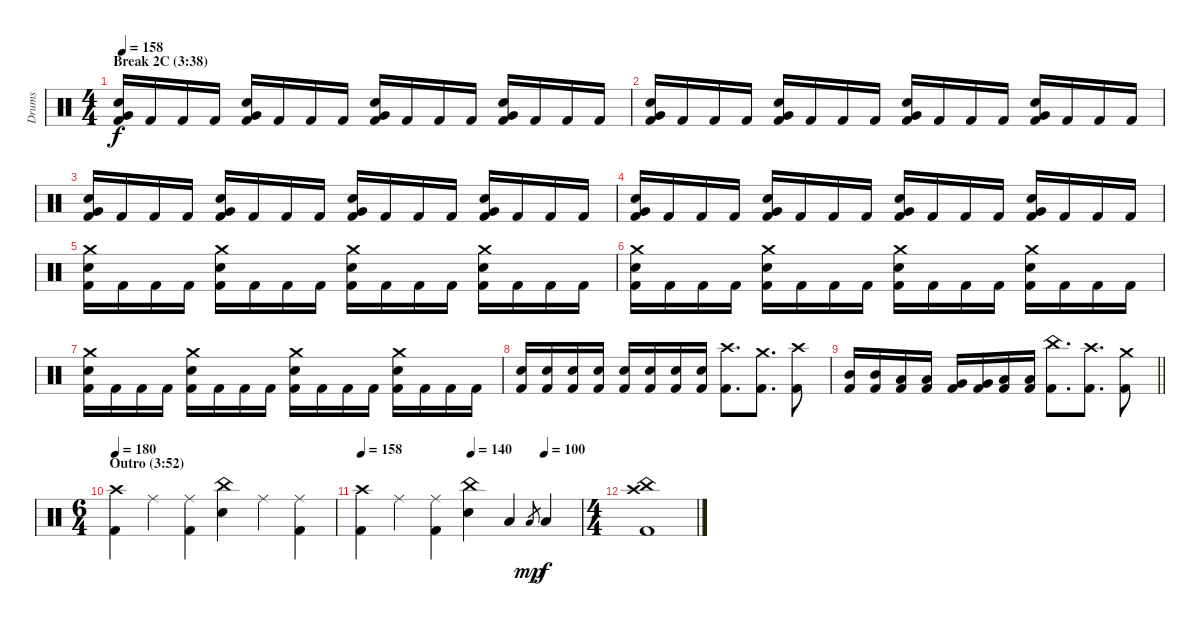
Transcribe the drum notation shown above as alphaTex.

\track ("Drums" "Drums") {instrument percussion}
\staff {score}
\articulation defaults
\ts (4 4)
\section ("" "Break 2C (3:38)")
\tempo 158
\clef neutral
\ks c
("Electric Snare (hit)" "Very Low Tom (hit)" "Kick (hit) 2").16{dy f} "Kick (hit) 2".16 "Kick (hit) 2".16 "Kick (hit) 2".16 ("Electric Snare (hit)" "Very Low Tom (hit)" "Kick (hit) 2").16 "Kick (hit) 2".16 "Kick (hit) 2".16 "Kick (hit) 2".16 ("Electric Snare (hit)" "Very Low Tom (hit)" "Kick (hit) 2").16 "Kick (hit) 2".16 "Kick (hit) 2".16 "Kick (hit) 2".16 ("Electric Snare (hit)" "Very Low Tom (hit)" "Kick (hit) 2").16 "Kick (hit) 2".16 "Kick (hit) 2".16 "Kick (hit) 2".16 |
("Electric Snare (hit)" "Very Low Tom (hit)" "Kick (hit) 2").16 "Kick (hit) 2".16 "Kick (hit) 2".16 "Kick (hit) 2".16 ("Electric Snare (hit)" "Very Low Tom (hit)" "Kick (hit) 2").16 "Kick (hit) 2".16 "Kick (hit) 2".16 "Kick (hit) 2".16 ("Electric Snare (hit)" "Very Low Tom (hit)" "Kick (hit) 2").16 "Kick (hit) 2".16 "Kick (hit) 2".16 "Kick (hit) 2".16 ("Electric Snare (hit)" "Very Low Tom (hit)" "Kick (hit) 2").16 "Kick (hit) 2".16 "Kick (hit) 2".16 "Kick (hit) 2".16 |
("Electric Snare (hit)" "Very Low Tom (hit)" "Kick (hit) 2").16 "Kick (hit) 2".16 "Kick (hit) 2".16 "Kick (hit) 2".16 ("Electric Snare (hit)" "Very Low Tom (hit)" "Kick (hit) 2").16 "Kick (hit) 2".16 "Kick (hit) 2".16 "Kick (hit) 2".16 ("Electric Snare (hit)" "Very Low Tom (hit)" "Kick (hit) 2").16 "Kick (hit) 2".16 "Kick (hit) 2".16 "Kick (hit) 2".16 ("Electric Snare (hit)" "Very Low Tom (hit)" "Kick (hit) 2").16 "Kick (hit) 2".16 "Kick (hit) 2".16 "Kick (hit) 2".16 |
("Electric Snare (hit)" "Very Low Tom (hit)" "Kick (hit) 2").16 "Kick (hit) 2".16 "Kick (hit) 2".16 "Kick (hit) 2".16 ("Electric Snare (hit)" "Very Low Tom (hit)" "Kick (hit) 2").16 "Kick (hit) 2".16 "Kick (hit) 2".16 "Kick (hit) 2".16 ("Electric Snare (hit)" "Very Low Tom (hit)" "Kick (hit) 2").16 "Kick (hit) 2".16 "Kick (hit) 2".16 "Kick (hit) 2".16 ("Electric Snare (hit)" "Very Low Tom (hit)" "Kick (hit) 2").16 "Kick (hit) 2".16 "Kick (hit) 2".16 "Kick (hit) 2".16 |
("Crash medium (hit)" "Electric Snare (hit)" "Kick (hit) 2").16 "Kick (hit) 2".16 "Kick (hit) 2".16 "Kick (hit) 2".16 ("Crash medium (hit)" "Electric Snare (hit)" "Kick (hit) 2").16 "Kick (hit) 2".16 "Kick (hit) 2".16 "Kick (hit) 2".16 ("Crash medium (hit)" "Electric Snare (hit)" "Kick (hit) 2").16 "Kick (hit) 2".16 "Kick (hit) 2".16 "Kick (hit) 2".16 ("Crash medium (hit)" "Electric Snare (hit)" "Kick (hit) 2").16 "Kick (hit) 2".16 "Kick (hit) 2".16 "Kick (hit) 2".16 |
("Crash medium (hit)" "Electric Snare (hit)" "Kick (hit) 2").16 "Kick (hit) 2".16 "Kick (hit) 2".16 "Kick (hit) 2".16 ("Crash medium (hit)" "Electric Snare (hit)" "Kick (hit) 2").16 "Kick (hit) 2".16 "Kick (hit) 2".16 "Kick (hit) 2".16 ("Crash medium (hit)" "Electric Snare (hit)" "Kick (hit) 2").16 "Kick (hit) 2".16 "Kick (hit) 2".16 "Kick (hit) 2".16 ("Crash medium (hit)" "Electric Snare (hit)" "Kick (hit) 2").16 "Kick (hit) 2".16 "Kick (hit) 2".16 "Kick (hit) 2".16 |
("Crash medium (hit)" "Electric Snare (hit)" "Kick (hit) 2").16 "Kick (hit) 2".16 "Kick (hit) 2".16 "Kick (hit) 2".16 ("Crash medium (hit)" "Electric Snare (hit)" "Kick (hit) 2").16 "Kick (hit) 2".16 "Kick (hit) 2".16 "Kick (hit) 2".16 ("Crash medium (hit)" "Electric Snare (hit)" "Kick (hit) 2").16 "Kick (hit) 2".16 "Kick (hit) 2".16 "Kick (hit) 2".16 ("Crash medium (hit)" "Electric Snare (hit)" "Kick (hit) 2").16 "Kick (hit) 2".16 "Kick (hit) 2".16 "Kick (hit) 2".16 |
("Electric Snare (hit)" "Kick (hit) 2").16 ("Electric Snare (hit)" "Kick (hit) 2").16 ("Electric Snare (hit)" "Kick (hit) 2").16 ("Electric Snare (hit)" "Kick (hit) 2").16 ("Electric Snare (hit)" "Kick (hit) 2").16 ("Electric Snare (hit)" "Kick (hit) 2").16 ("Electric Snare (hit)" "Kick (hit) 2").16 ("Electric Snare (hit)" "Kick (hit) 2").16 ("Crash high (hit)" "Kick (hit) 2").8{d} ("Crash medium (hit)" "Kick (hit) 2").8{d} ("Crash high (hit)" "Kick (hit) 2").8 |
\barLineRight lightlight
("Mid Tom (hit)" "Kick (hit) 2").16 ("Mid Tom (hit)" "Kick (hit) 2").16 ("Low Tom (hit)" "Kick (hit) 2").16 ("Low Tom (hit)" "Kick (hit) 2").16 ("Very Low Tom (hit)" "Kick (hit) 2").16 ("Very Low Tom (hit)" "Kick (hit) 2").16 ("Low Floor Tom (hit)" "Kick (hit) 2").16 ("Low Floor Tom (hit)" "Kick (hit) 2").16 ("China (hit)" "Kick (hit) 2").8{d} ("Crash high (hit)" "Kick (hit) 2").8{d} ("Crash medium (hit)" "Kick (hit) 2").8 |
\ts (6 4)
\section ("" "Outro (3:52)")
\tempo 180
("Crash high (hit)" "Kick (hit) 2").4 "Ride (middle)".4 ("Ride (middle)" "Kick (hit) 2").4 ("China (hit)" "Electric Snare (hit)").4 "Ride (middle)".4 ("Ride (middle)" "Kick (hit) 2").4 |
\tempo 158
\tempo (140 0.5)
\tempo (100 0.8333333333333334)
("Crash high (hit)" "Kick (hit) 2").4 "Ride (middle)".4 ("Ride (middle)" "Kick (hit) 2").4 ("China (hit)" "Electric Snare (hit)").4 "Low Tom (hit)".4 "Low Floor Tom (hit)".8{gr dy mp} "Low Floor Tom (hit)".4{dy f} |
\ts (4 4)
("Crash high (hit)" "China (hit)" "Kick (hit) 2").1
